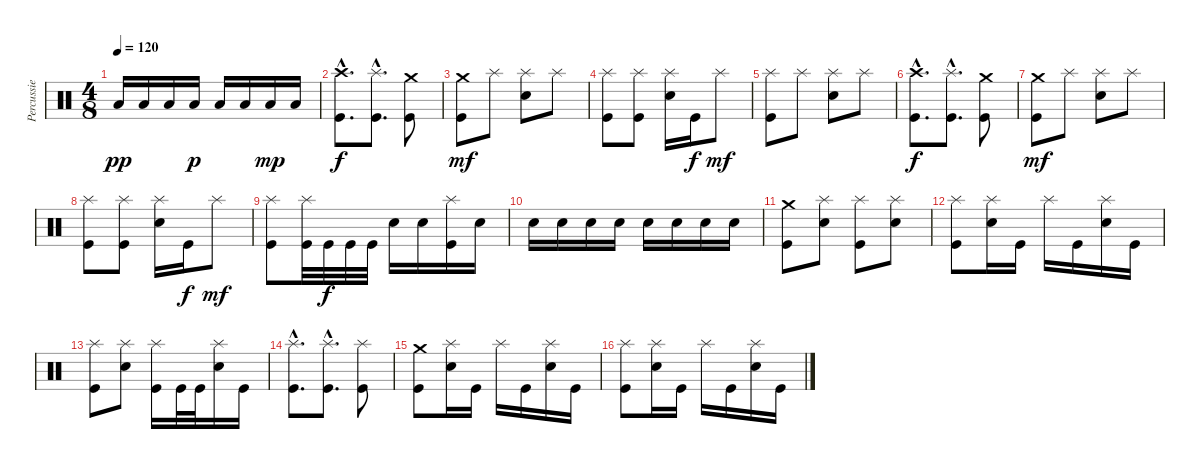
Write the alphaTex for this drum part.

\track ("Percussie" "Percussie") {instrument percussion}
\staff {score}
\articulation defaults
\ts (4 8)
\tempo 120
\clef neutral
\ks c "Low Tom (hit)".16{dy pp} "Low Tom (hit)".16 "Low Tom (hit)".16 "Low Tom (hit)".16{dy p} "Low Tom (hit)".16 "Low Tom (hit)".16 "Low Tom (hit)".16{dy mp} "Low Tom (hit)".16
|
("Crash high (hit)"{hac} "Kick (hit)"{hac}).8{d dy f} ("Splash (hit)"{hac} "Kick (hit)"{hac}).8{d} ("Crash medium (hit)" "Kick (hit)").8 |
("Crash medium (hit)" "Kick (hit)").8{dy mf} "Splash (hit)".8 ("Splash (hit)" "Electric Snare (hit)").8 "Splash (hit)".8 |
("Splash (hit)" "Kick (hit)").8 ("Splash (hit)" "Kick (hit)").8 ("Splash (hit)" "Electric Snare (hit)").16 "Kick (hit)".16{dy f} "Splash (hit)".8{dy mf} |
("Splash (hit)" "Kick (hit)").8 "Splash (hit)".8 ("Splash (hit)" "Electric Snare (hit)").8 "Splash (hit)".8 |
("Crash high (hit)"{hac} "Kick (hit)"{hac}).8{d dy f} ("Splash (hit)"{hac} "Kick (hit)"{hac}).8{d} ("Crash medium (hit)" "Kick (hit)").8 |
("Crash medium (hit)" "Kick (hit)").8{dy mf} "Splash (hit)".8 ("Splash (hit)" "Electric Snare (hit)").8 "Splash (hit)".8 |
("Splash (hit)" "Kick (hit)").8 ("Splash (hit)" "Kick (hit)").8 ("Splash (hit)" "Electric Snare (hit)").16 "Kick (hit)".16{dy f} "Splash (hit)".8{dy mf} |
("Splash (hit)" "Kick (hit)").8 ("Splash (hit)" "Kick (hit)").32 "Kick (hit)".32{dy f} "Kick (hit)".32 "Kick (hit)".32 "Electric Snare (hit)".16 "Electric Snare (hit)".16 ("Splash (hit)" "Kick (hit)").16 "Electric Snare (hit)".16 |
"Electric Snare (hit)".16 "Electric Snare (hit)".16 "Electric Snare (hit)".16 "Electric Snare (hit)".16 "Electric Snare (hit)".16 "Electric Snare (hit)".16 "Electric Snare (hit)".16 "Electric Snare (hit)".16 |
("Crash medium (hit)" "Kick (hit)").8 ("Splash (hit)" "Electric Snare (hit)").8 ("Splash (hit)" "Kick (hit)").8 ("Splash (hit)" "Electric Snare (hit)").8 |
("Splash (hit)" "Kick (hit)").8 ("Splash (hit)" "Electric Snare (hit)").16 "Kick (hit)".16 "Splash (hit)".16 "Kick (hit)".16 ("Splash (hit)" "Electric Snare (hit)").16 "Kick (hit)".16 |
("Splash (hit)" "Kick (hit)").8 ("Splash (hit)" "Electric Snare (hit)").8 ("Splash (hit)" "Kick (hit)").16 "Kick (hit)".32 "Kick (hit)".32 ("Splash (hit)" "Electric Snare (hit)").16 "Kick (hit)".16 |
("Splash (hit)"{hac} "Kick (hit)"{hac}).8{d} ("Splash (hit)"{hac} "Kick (hit)"{hac}).8{d} ("Splash (hit)" "Kick (hit)").8 |
("Crash medium (hit)" "Kick (hit)").8 ("Splash (hit)" "Electric Snare (hit)").16 "Kick (hit)".16 "Splash (hit)".16 "Kick (hit)".16 ("Splash (hit)" "Electric Snare (hit)").16 "Kick (hit)".16 |
("Splash (hit)" "Kick (hit)").8 ("Splash (hit)" "Electric Snare (hit)").16 "Kick (hit)".16 "Splash (hit)".16 "Kick (hit)".16 ("Splash (hit)" "Electric Snare (hit)").16 "Kick (hit)".16
